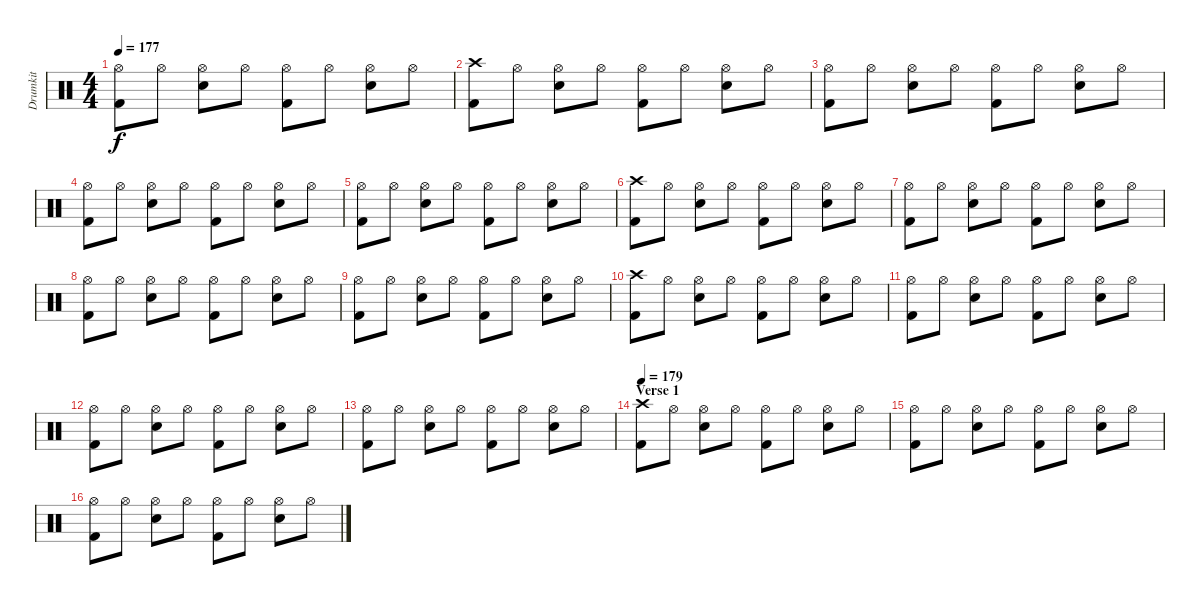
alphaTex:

\track ("Drumkit" "Drumkit") {instrument percussion}
\staff {score}
\articulation defaults
\ts (4 4)
\tempo 177
\clef neutral
\ks c
("Kick (hit) 2" "Hi-Hat (open)").8{dy f} "Hi-Hat (open)".8 ("Snare (hit) 2" "Hi-Hat (open)").8 "Hi-Hat (open)".8 ("Kick (hit) 2" "Hi-Hat (open)").8 "Hi-Hat (open)".8 ("Snare (hit) 2" "Hi-Hat (open)").8 "Hi-Hat (open)".8 |
("Crash high (hit)" "Kick (hit) 2").8 "Hi-Hat (open)".8 ("Snare (hit) 2" "Hi-Hat (open)").8 "Hi-Hat (open)".8 ("Kick (hit) 2" "Hi-Hat (open)").8 "Hi-Hat (open)".8 ("Snare (hit) 2" "Hi-Hat (open)").8 "Hi-Hat (open)".8 |
("Kick (hit) 2" "Hi-Hat (open)").8 "Hi-Hat (open)".8 ("Snare (hit) 2" "Hi-Hat (open)").8 "Hi-Hat (open)".8 ("Kick (hit) 2" "Hi-Hat (open)").8 "Hi-Hat (open)".8 ("Snare (hit) 2" "Hi-Hat (open)").8 "Hi-Hat (open)".8 |
("Kick (hit) 2" "Hi-Hat (open)").8 "Hi-Hat (open)".8 ("Snare (hit) 2" "Hi-Hat (open)").8 "Hi-Hat (open)".8 ("Kick (hit) 2" "Hi-Hat (open)").8 "Hi-Hat (open)".8 ("Snare (hit) 2" "Hi-Hat (open)").8 "Hi-Hat (open)".8 |
("Kick (hit) 2" "Hi-Hat (open)").8 "Hi-Hat (open)".8 ("Snare (hit) 2" "Hi-Hat (open)").8 "Hi-Hat (open)".8 ("Kick (hit) 2" "Hi-Hat (open)").8 "Hi-Hat (open)".8 ("Snare (hit) 2" "Hi-Hat (open)").8 "Hi-Hat (open)".8 |
("Crash high (hit)" "Kick (hit) 2").8 "Hi-Hat (open)".8 ("Snare (hit) 2" "Hi-Hat (open)").8 "Hi-Hat (open)".8 ("Kick (hit) 2" "Hi-Hat (open)").8 "Hi-Hat (open)".8 ("Snare (hit) 2" "Hi-Hat (open)").8 "Hi-Hat (open)".8 |
("Kick (hit) 2" "Hi-Hat (open)").8 "Hi-Hat (open)".8 ("Snare (hit) 2" "Hi-Hat (open)").8 "Hi-Hat (open)".8 ("Kick (hit) 2" "Hi-Hat (open)").8 "Hi-Hat (open)".8 ("Snare (hit) 2" "Hi-Hat (open)").8 "Hi-Hat (open)".8 |
("Kick (hit) 2" "Hi-Hat (open)").8 "Hi-Hat (open)".8 ("Snare (hit) 2" "Hi-Hat (open)").8 "Hi-Hat (open)".8 ("Kick (hit) 2" "Hi-Hat (open)").8 "Hi-Hat (open)".8 ("Snare (hit) 2" "Hi-Hat (open)").8 "Hi-Hat (open)".8 |
("Kick (hit) 2" "Hi-Hat (open)").8 "Hi-Hat (open)".8 ("Snare (hit) 2" "Hi-Hat (open)").8 "Hi-Hat (open)".8 ("Kick (hit) 2" "Hi-Hat (open)").8 "Hi-Hat (open)".8 ("Snare (hit) 2" "Hi-Hat (open)").8 "Hi-Hat (open)".8 |
("Crash high (hit)" "Kick (hit) 2").8 "Hi-Hat (open)".8 ("Snare (hit) 2" "Hi-Hat (open)").8 "Hi-Hat (open)".8 ("Kick (hit) 2" "Hi-Hat (open)").8 "Hi-Hat (open)".8 ("Snare (hit) 2" "Hi-Hat (open)").8 "Hi-Hat (open)".8 |
("Kick (hit) 2" "Hi-Hat (open)").8 "Hi-Hat (open)".8 ("Snare (hit) 2" "Hi-Hat (open)").8 "Hi-Hat (open)".8 ("Kick (hit) 2" "Hi-Hat (open)").8 "Hi-Hat (open)".8 ("Snare (hit) 2" "Hi-Hat (open)").8 "Hi-Hat (open)".8 |
("Kick (hit) 2" "Hi-Hat (open)").8 "Hi-Hat (open)".8 ("Snare (hit) 2" "Hi-Hat (open)").8 "Hi-Hat (open)".8 ("Kick (hit) 2" "Hi-Hat (open)").8 "Hi-Hat (open)".8 ("Snare (hit) 2" "Hi-Hat (open)").8 "Hi-Hat (open)".8 |
("Kick (hit) 2" "Hi-Hat (open)").8 "Hi-Hat (open)".8 ("Snare (hit) 2" "Hi-Hat (open)").8 "Hi-Hat (open)".8 ("Kick (hit) 2" "Hi-Hat (open)").8 "Hi-Hat (open)".8 ("Snare (hit) 2" "Hi-Hat (open)").8 "Hi-Hat (open)".8 |
\section ("" "Verse 1")
\tempo 179
("Crash high (hit)" "Kick (hit) 2").8 "Hi-Hat (open)".8 ("Snare (hit) 2" "Hi-Hat (open)").8 "Hi-Hat (open)".8 ("Kick (hit) 2" "Hi-Hat (open)").8 "Hi-Hat (open)".8 ("Snare (hit) 2" "Hi-Hat (open)").8 "Hi-Hat (open)".8 |
("Kick (hit) 2" "Hi-Hat (open)").8 "Hi-Hat (open)".8 ("Snare (hit) 2" "Hi-Hat (open)").8 "Hi-Hat (open)".8 ("Kick (hit) 2" "Hi-Hat (open)").8 "Hi-Hat (open)".8 ("Snare (hit) 2" "Hi-Hat (open)").8 "Hi-Hat (open)".8 |
("Kick (hit) 2" "Hi-Hat (open)").8 "Hi-Hat (open)".8 ("Snare (hit) 2" "Hi-Hat (open)").8 "Hi-Hat (open)".8 ("Kick (hit) 2" "Hi-Hat (open)").8 "Hi-Hat (open)".8 ("Snare (hit) 2" "Hi-Hat (open)").8 "Hi-Hat (open)".8
